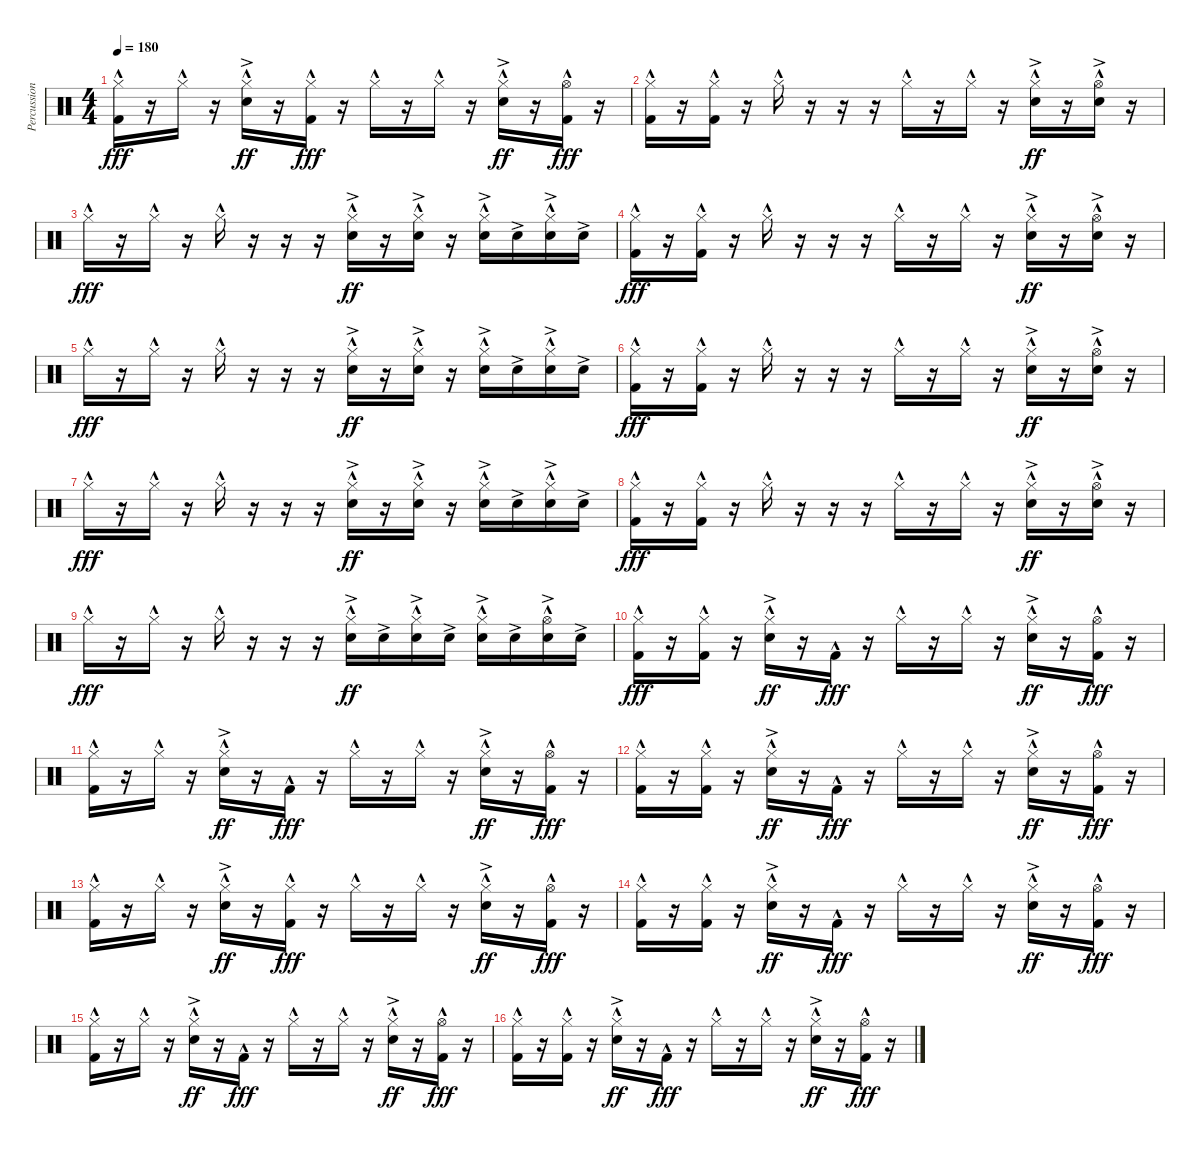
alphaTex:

\track ("Percussion" "Percussion") {instrument percussion}
\staff {score}
\articulation defaults
\ts (4 4)
\tempo 180
\clef neutral
\ks c
("Hi-Hat (closed)"{hac} "Kick (hit) 2"{hac}).16{dy fff} r.16 "Hi-Hat (closed)"{hac}.16 r.16 ("Hi-Hat (closed)"{hac} "Snare (hit) 2"{ac}).16{dy ff} r.16 ("Hi-Hat (closed)"{hac} "Kick (hit) 2"{hac}).16{dy fff} r.16 "Hi-Hat (closed)"{hac}.16 r.16 "Hi-Hat (closed)"{hac}.16 r.16 ("Hi-Hat (closed)"{hac} "Snare (hit) 2"{ac}).16{dy ff} r.16 ("Hi-Hat (open)"{hac} "Kick (hit) 2"{hac}).16{dy fff} r.16 |
("Hi-Hat (closed)"{hac} "Kick (hit) 2"{hac}).16 r.16 ("Hi-Hat (closed)"{hac} "Kick (hit) 2"{hac}).16 r.16 "Hi-Hat (closed)"{hac}.16 r.16 r.16 r.16 "Hi-Hat (closed)"{hac}.16 r.16 "Hi-Hat (closed)"{hac}.16 r.16 ("Hi-Hat (closed)"{hac} "Snare (hit) 2"{ac}).16{dy ff} r.16 ("Hi-Hat (open)"{hac} "Snare (hit) 2"{ac}).16 r.16 |
"Hi-Hat (closed)"{hac}.16{dy fff} r.16 "Hi-Hat (closed)"{hac}.16 r.16 "Hi-Hat (closed)"{hac}.16 r.16 r.16 r.16 ("Hi-Hat (closed)"{hac} "Snare (hit) 2"{ac}).16{dy ff} r.16 ("Hi-Hat (closed)"{hac} "Snare (hit) 2"{ac}).16 r.16 ("Hi-Hat (closed)"{hac} "Snare (hit) 2"{ac}).16 "Snare (hit) 2"{ac}.16 ("Hi-Hat (closed)"{hac} "Snare (hit) 2"{ac}).16 "Snare (hit) 2"{ac}.16 |
("Hi-Hat (closed)"{hac} "Kick (hit) 2"{hac}).16{dy fff} r.16 ("Hi-Hat (closed)"{hac} "Kick (hit) 2"{hac}).16 r.16 "Hi-Hat (closed)"{hac}.16 r.16 r.16 r.16 "Hi-Hat (closed)"{hac}.16 r.16 "Hi-Hat (closed)"{hac}.16 r.16 ("Hi-Hat (closed)"{hac} "Snare (hit) 2"{ac}).16{dy ff} r.16 ("Hi-Hat (open)"{hac} "Snare (hit) 2"{ac}).16 r.16 |
"Hi-Hat (closed)"{hac}.16{dy fff} r.16 "Hi-Hat (closed)"{hac}.16 r.16 "Hi-Hat (closed)"{hac}.16 r.16 r.16 r.16 ("Hi-Hat (closed)"{hac} "Snare (hit) 2"{ac}).16{dy ff} r.16 ("Hi-Hat (closed)"{hac} "Snare (hit) 2"{ac}).16 r.16 ("Hi-Hat (closed)"{hac} "Snare (hit) 2"{ac}).16 "Snare (hit) 2"{ac}.16 ("Hi-Hat (closed)"{hac} "Snare (hit) 2"{ac}).16 "Snare (hit) 2"{ac}.16 |
("Hi-Hat (closed)"{hac} "Kick (hit) 2"{hac}).16{dy fff} r.16 ("Hi-Hat (closed)"{hac} "Kick (hit) 2"{hac}).16 r.16 "Hi-Hat (closed)"{hac}.16 r.16 r.16 r.16 "Hi-Hat (closed)"{hac}.16 r.16 "Hi-Hat (closed)"{hac}.16 r.16 ("Hi-Hat (closed)"{hac} "Snare (hit) 2"{ac}).16{dy ff} r.16 ("Hi-Hat (open)"{hac} "Snare (hit) 2"{ac}).16 r.16 |
"Hi-Hat (closed)"{hac}.16{dy fff} r.16 "Hi-Hat (closed)"{hac}.16 r.16 "Hi-Hat (closed)"{hac}.16 r.16 r.16 r.16 ("Hi-Hat (closed)"{hac} "Snare (hit) 2"{ac}).16{dy ff} r.16 ("Hi-Hat (closed)"{hac} "Snare (hit) 2"{ac}).16 r.16 ("Hi-Hat (closed)"{hac} "Snare (hit) 2"{ac}).16 "Snare (hit) 2"{ac}.16 ("Hi-Hat (closed)"{hac} "Snare (hit) 2"{ac}).16 "Snare (hit) 2"{ac}.16 |
("Hi-Hat (closed)"{hac} "Kick (hit) 2"{hac}).16{dy fff} r.16 ("Hi-Hat (closed)"{hac} "Kick (hit) 2"{hac}).16 r.16 "Hi-Hat (closed)"{hac}.16 r.16 r.16 r.16 "Hi-Hat (closed)"{hac}.16 r.16 "Hi-Hat (closed)"{hac}.16 r.16 ("Hi-Hat (closed)"{hac} "Snare (hit) 2"{ac}).16{dy ff} r.16 ("Hi-Hat (open)"{hac} "Snare (hit) 2"{ac}).16 r.16 |
"Hi-Hat (closed)"{hac}.16{dy fff} r.16 "Hi-Hat (closed)"{hac}.16 r.16 "Hi-Hat (closed)"{hac}.16 r.16 r.16 r.16 ("Hi-Hat (closed)"{hac} "Snare (hit) 2"{ac}).16{dy ff} "Snare (hit) 2"{ac}.16 ("Hi-Hat (closed)"{hac} "Snare (hit) 2"{ac}).16 "Snare (hit) 2"{ac}.16 ("Hi-Hat (closed)"{hac} "Snare (hit) 2"{ac}).16 "Snare (hit) 2"{ac}.16 ("Hi-Hat (open)"{hac} "Snare (hit) 2"{ac}).16 "Snare (hit) 2"{ac}.16 |
("Hi-Hat (closed)"{hac} "Kick (hit) 2"{hac}).16{dy fff} r.16 ("Hi-Hat (closed)"{hac} "Kick (hit) 2"{hac}).16 r.16 ("Hi-Hat (closed)"{hac} "Snare (hit) 2"{ac}).16{dy ff} r.16 "Kick (hit) 2"{hac}.16{dy fff} r.16 "Hi-Hat (closed)"{hac}.16 r.16 "Hi-Hat (closed)"{hac}.16 r.16 ("Hi-Hat (closed)"{hac} "Snare (hit) 2"{ac}).16{dy ff} r.16 ("Hi-Hat (open)"{hac} "Kick (hit) 2"{hac}).16{dy fff} r.16 |
("Hi-Hat (closed)"{hac} "Kick (hit) 2"{hac}).16 r.16 "Hi-Hat (closed)"{hac}.16 r.16 ("Hi-Hat (closed)"{hac} "Snare (hit) 2"{ac}).16{dy ff} r.16 "Kick (hit) 2"{hac}.16{dy fff} r.16 "Hi-Hat (closed)"{hac}.16 r.16 "Hi-Hat (closed)"{hac}.16 r.16 ("Hi-Hat (closed)"{hac} "Snare (hit) 2"{ac}).16{dy ff} r.16 ("Hi-Hat (open)"{hac} "Kick (hit) 2"{hac}).16{dy fff} r.16 |
("Hi-Hat (closed)"{hac} "Kick (hit) 2"{hac}).16 r.16 ("Hi-Hat (closed)"{hac} "Kick (hit) 2"{hac}).16 r.16 ("Hi-Hat (closed)"{hac} "Snare (hit) 2"{ac}).16{dy ff} r.16 "Kick (hit) 2"{hac}.16{dy fff} r.16 "Hi-Hat (closed)"{hac}.16 r.16 "Hi-Hat (closed)"{hac}.16 r.16 ("Hi-Hat (closed)"{hac} "Snare (hit) 2"{ac}).16{dy ff} r.16 ("Hi-Hat (open)"{hac} "Kick (hit) 2"{hac}).16{dy fff} r.16 |
("Hi-Hat (closed)"{hac} "Kick (hit) 2"{hac}).16 r.16 "Hi-Hat (closed)"{hac}.16 r.16 ("Hi-Hat (closed)"{hac} "Snare (hit) 2"{ac}).16{dy ff} r.16 ("Hi-Hat (closed)"{hac} "Kick (hit) 2"{hac}).16{dy fff} r.16 "Hi-Hat (closed)"{hac}.16 r.16 "Hi-Hat (closed)"{hac}.16 r.16 ("Hi-Hat (closed)"{hac} "Snare (hit) 2"{ac}).16{dy ff} r.16 ("Hi-Hat (open)"{hac} "Kick (hit) 2"{hac}).16{dy fff} r.16 |
("Hi-Hat (closed)"{hac} "Kick (hit) 2"{hac}).16 r.16 ("Hi-Hat (closed)"{hac} "Kick (hit) 2"{hac}).16 r.16 ("Hi-Hat (closed)"{hac} "Snare (hit) 2"{ac}).16{dy ff} r.16 "Kick (hit) 2"{hac}.16{dy fff} r.16 "Hi-Hat (closed)"{hac}.16 r.16 "Hi-Hat (closed)"{hac}.16 r.16 ("Hi-Hat (closed)"{hac} "Snare (hit) 2"{ac}).16{dy ff} r.16 ("Hi-Hat (open)"{hac} "Kick (hit) 2"{hac}).16{dy fff} r.16 |
("Hi-Hat (closed)"{hac} "Kick (hit) 2"{hac}).16 r.16 "Hi-Hat (closed)"{hac}.16 r.16 ("Hi-Hat (closed)"{hac} "Snare (hit) 2"{ac}).16{dy ff} r.16 "Kick (hit) 2"{hac}.16{dy fff} r.16 "Hi-Hat (closed)"{hac}.16 r.16 "Hi-Hat (closed)"{hac}.16 r.16 ("Hi-Hat (closed)"{hac} "Snare (hit) 2"{ac}).16{dy ff} r.16 ("Hi-Hat (open)"{hac} "Kick (hit) 2"{hac}).16{dy fff} r.16 |
("Hi-Hat (closed)"{hac} "Kick (hit) 2"{hac}).16 r.16 ("Hi-Hat (closed)"{hac} "Kick (hit) 2"{hac}).16 r.16 ("Hi-Hat (closed)"{hac} "Snare (hit) 2"{ac}).16{dy ff} r.16 "Kick (hit) 2"{hac}.16{dy fff} r.16 "Hi-Hat (closed)"{hac}.16 r.16 "Hi-Hat (closed)"{hac}.16 r.16 ("Hi-Hat (closed)"{hac} "Snare (hit) 2"{ac}).16{dy ff} r.16 ("Hi-Hat (open)"{hac} "Kick (hit) 2"{hac}).16{dy fff} r.16
